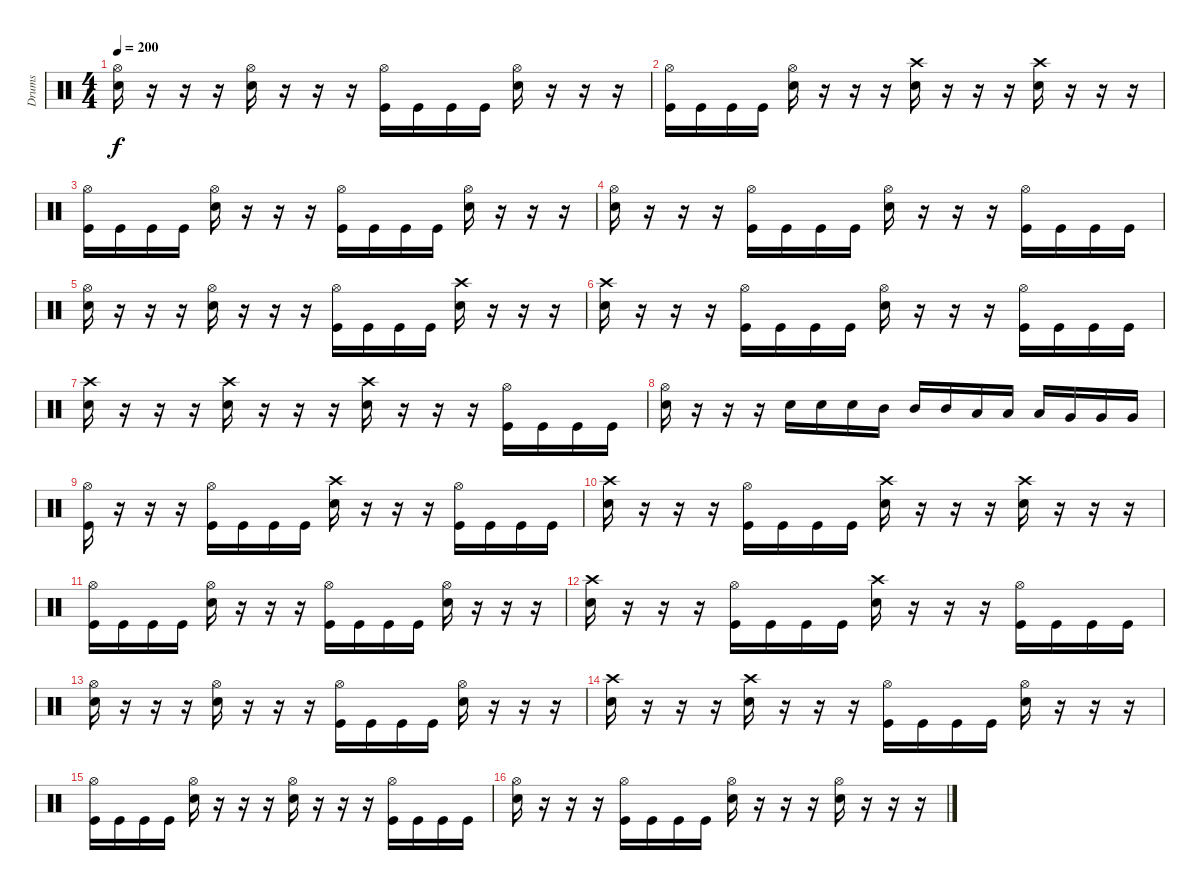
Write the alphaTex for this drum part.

\track ("Drums" "Drums") {instrument percussion}
\staff {score}
\articulation defaults
\ts (4 4)
\tempo 200
\clef neutral
\ks c
("Hi-Hat (open)" "Snare (hit) 2").16{dy f} r.16 r.16 r.16 ("Hi-Hat (open)" "Snare (hit) 2").16 r.16 r.16 r.16 ("Hi-Hat (open)" "Kick (hit)").16 "Kick (hit)".16 "Kick (hit)".16 "Kick (hit)".16 ("Hi-Hat (open)" "Snare (hit) 2").16 r.16 r.16 r.16 |
("Hi-Hat (open)" "Kick (hit)").16 "Kick (hit)".16 "Kick (hit)".16 "Kick (hit)".16 ("Hi-Hat (open)" "Snare (hit) 2").16 r.16 r.16 r.16 ("Crash high (hit)" "Snare (hit) 2").16 r.16 r.16 r.16 ("Crash high (hit)" "Snare (hit) 2").16 r.16 r.16 r.16 |
("Hi-Hat (open)" "Kick (hit)").16 "Kick (hit)".16 "Kick (hit)".16 "Kick (hit)".16 ("Hi-Hat (open)" "Snare (hit) 2").16 r.16 r.16 r.16 ("Hi-Hat (open)" "Kick (hit)").16 "Kick (hit)".16 "Kick (hit)".16 "Kick (hit)".16 ("Hi-Hat (open)" "Snare (hit) 2").16 r.16 r.16 r.16 |
("Hi-Hat (open)" "Snare (hit) 2").16 r.16 r.16 r.16 ("Hi-Hat (open)" "Kick (hit)").16 "Kick (hit)".16 "Kick (hit)".16 "Kick (hit)".16 ("Hi-Hat (open)" "Snare (hit) 2").16 r.16 r.16 r.16 ("Hi-Hat (open)" "Kick (hit)").16 "Kick (hit)".16 "Kick (hit)".16 "Kick (hit)".16 |
("Hi-Hat (open)" "Snare (hit) 2").16 r.16 r.16 r.16 ("Hi-Hat (open)" "Snare (hit) 2").16 r.16 r.16 r.16 ("Hi-Hat (open)" "Kick (hit)").16 "Kick (hit)".16 "Kick (hit)".16 "Kick (hit)".16 ("Crash high (hit)" "Snare (hit) 2").16 r.16 r.16 r.16 |
("Crash high (hit)" "Snare (hit) 2").16 r.16 r.16 r.16 ("Hi-Hat (open)" "Kick (hit)").16 "Kick (hit)".16 "Kick (hit)".16 "Kick (hit)".16 ("Hi-Hat (open)" "Snare (hit) 2").16 r.16 r.16 r.16 ("Hi-Hat (open)" "Kick (hit)").16 "Kick (hit)".16 "Kick (hit)".16 "Kick (hit)".16 |
("Crash high (hit)" "Snare (hit) 2").16 r.16 r.16 r.16 ("Crash high (hit)" "Snare (hit) 2").16 r.16 r.16 r.16 ("Crash high (hit)" "Snare (hit) 2").16 r.16 r.16 r.16 ("Hi-Hat (open)" "Kick (hit)").16 "Kick (hit)".16 "Kick (hit)".16 "Kick (hit)".16 |
("Hi-Hat (open)" "Snare (hit) 2").16 r.16 r.16 r.16 "Snare (hit) 2".16 "Snare (hit) 2".16 "Snare (hit) 2".16 "Mid Tom (hit)".16 "Mid Tom (hit)".16 "Mid Tom (hit)".16 "Low Tom (hit)".16 "Low Tom (hit)".16 "Low Tom (hit)".16 "Very Low Tom (hit)".16 "Very Low Tom (hit)".16 "Very Low Tom (hit)".16 |
("Hi-Hat (open)" "Kick (hit)").16 r.16 r.16 r.16 ("Hi-Hat (open)" "Kick (hit)").16 "Kick (hit)".16 "Kick (hit)".16 "Kick (hit)".16 ("Crash high (hit)" "Snare (hit) 2").16 r.16 r.16 r.16 ("Hi-Hat (open)" "Kick (hit)").16 "Kick (hit)".16 "Kick (hit)".16 "Kick (hit)".16 |
("Crash high (hit)" "Snare (hit) 2").16 r.16 r.16 r.16 ("Hi-Hat (open)" "Kick (hit)").16 "Kick (hit)".16 "Kick (hit)".16 "Kick (hit)".16 ("Crash high (hit)" "Snare (hit) 2").16 r.16 r.16 r.16 ("Crash high (hit)" "Snare (hit) 2").16 r.16 r.16 r.16 |
("Hi-Hat (open)" "Kick (hit)").16 "Kick (hit)".16 "Kick (hit)".16 "Kick (hit)".16 ("Hi-Hat (open)" "Snare (hit) 2").16 r.16 r.16 r.16 ("Hi-Hat (open)" "Kick (hit)").16 "Kick (hit)".16 "Kick (hit)".16 "Kick (hit)".16 ("Hi-Hat (open)" "Snare (hit) 2").16 r.16 r.16 r.16 |
("Crash high (hit)" "Snare (hit) 2").16 r.16 r.16 r.16 ("Hi-Hat (open)" "Kick (hit)").16 "Kick (hit)".16 "Kick (hit)".16 "Kick (hit)".16 ("Crash high (hit)" "Snare (hit) 2").16 r.16 r.16 r.16 ("Hi-Hat (open)" "Kick (hit)").16 "Kick (hit)".16 "Kick (hit)".16 "Kick (hit)".16 |
("Hi-Hat (open)" "Snare (hit) 2").16 r.16 r.16 r.16 ("Hi-Hat (open)" "Snare (hit) 2").16 r.16 r.16 r.16 ("Hi-Hat (open)" "Kick (hit)").16 "Kick (hit)".16 "Kick (hit)".16 "Kick (hit)".16 ("Hi-Hat (open)" "Snare (hit) 2").16 r.16 r.16 r.16 |
("Crash high (hit)" "Snare (hit) 2").16 r.16 r.16 r.16 ("Crash high (hit)" "Snare (hit) 2").16 r.16 r.16 r.16 ("Hi-Hat (open)" "Kick (hit)").16 "Kick (hit)".16 "Kick (hit)".16 "Kick (hit)".16 ("Hi-Hat (open)" "Snare (hit) 2").16 r.16 r.16 r.16 |
("Hi-Hat (open)" "Kick (hit)").16 "Kick (hit)".16 "Kick (hit)".16 "Kick (hit)".16 ("Hi-Hat (open)" "Snare (hit) 2").16 r.16 r.16 r.16 ("Hi-Hat (open)" "Snare (hit) 2").16 r.16 r.16 r.16 ("Hi-Hat (open)" "Kick (hit)").16 "Kick (hit)".16 "Kick (hit)".16 "Kick (hit)".16 |
("Hi-Hat (open)" "Snare (hit) 2").16 r.16 r.16 r.16 ("Hi-Hat (open)" "Kick (hit)").16 "Kick (hit)".16 "Kick (hit)".16 "Kick (hit)".16 ("Hi-Hat (open)" "Snare (hit) 2").16 r.16 r.16 r.16 ("Hi-Hat (open)" "Snare (hit) 2").16 r.16 r.16 r.16
